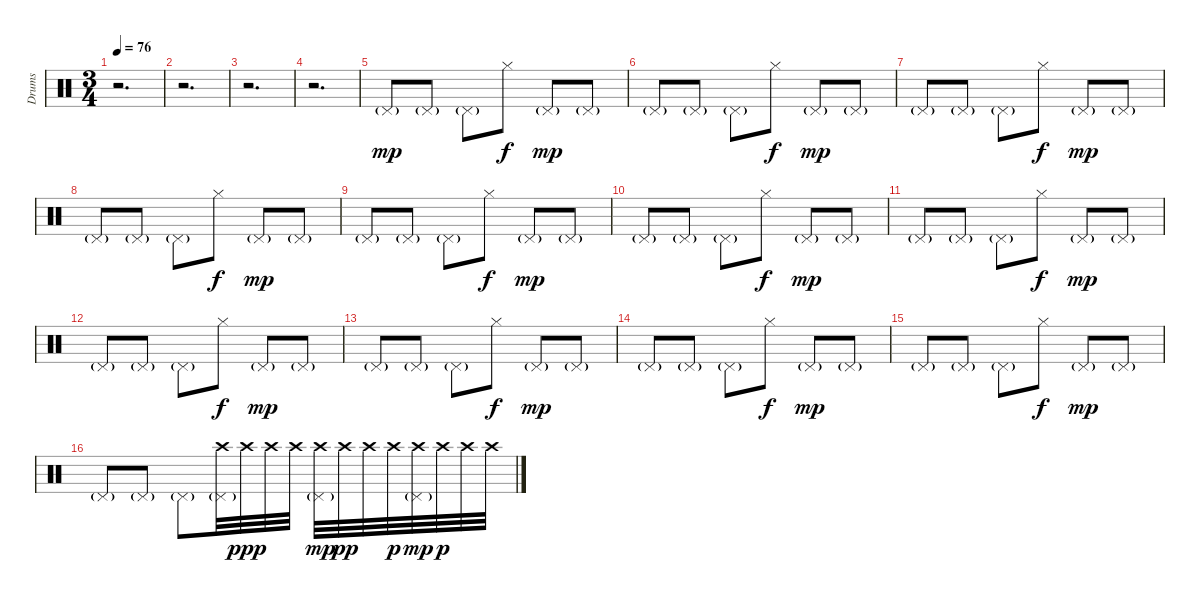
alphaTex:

\track ("Drums" "Drums") {instrument percussion}
\staff {score}
\articulation defaults
\ts (3 4)
\tempo 76
\clef neutral
\ks c
r.2{d dy mp} |
r.2{d} |
r.2{d} |
r.2{d} |
"Pedal Hi-Hat (hit)"{g}.8 "Pedal Hi-Hat (hit)"{g}.8 "Pedal Hi-Hat (hit)"{g}.8 "Hi-Hat (closed)".8{dy f} "Pedal Hi-Hat (hit)"{g}.8{dy mp} "Pedal Hi-Hat (hit)"{g}.8 |
"Pedal Hi-Hat (hit)"{g}.8 "Pedal Hi-Hat (hit)"{g}.8 "Pedal Hi-Hat (hit)"{g}.8 "Hi-Hat (closed)".8{dy f} "Pedal Hi-Hat (hit)"{g}.8{dy mp} "Pedal Hi-Hat (hit)"{g}.8 |
"Pedal Hi-Hat (hit)"{g}.8 "Pedal Hi-Hat (hit)"{g}.8 "Pedal Hi-Hat (hit)"{g}.8 "Hi-Hat (closed)".8{dy f} "Pedal Hi-Hat (hit)"{g}.8{dy mp} "Pedal Hi-Hat (hit)"{g}.8 |
"Pedal Hi-Hat (hit)"{g}.8 "Pedal Hi-Hat (hit)"{g}.8 "Pedal Hi-Hat (hit)"{g}.8 "Hi-Hat (closed)".8{dy f} "Pedal Hi-Hat (hit)"{g}.8{dy mp} "Pedal Hi-Hat (hit)"{g}.8 |
"Pedal Hi-Hat (hit)"{g}.8 "Pedal Hi-Hat (hit)"{g}.8 "Pedal Hi-Hat (hit)"{g}.8 "Hi-Hat (closed)".8{dy f} "Pedal Hi-Hat (hit)"{g}.8{dy mp} "Pedal Hi-Hat (hit)"{g}.8 |
"Pedal Hi-Hat (hit)"{g}.8 "Pedal Hi-Hat (hit)"{g}.8 "Pedal Hi-Hat (hit)"{g}.8 "Hi-Hat (closed)".8{dy f} "Pedal Hi-Hat (hit)"{g}.8{dy mp} "Pedal Hi-Hat (hit)"{g}.8 |
"Pedal Hi-Hat (hit)"{g}.8 "Pedal Hi-Hat (hit)"{g}.8 "Pedal Hi-Hat (hit)"{g}.8 "Hi-Hat (closed)".8{dy f} "Pedal Hi-Hat (hit)"{g}.8{dy mp} "Pedal Hi-Hat (hit)"{g}.8 |
"Pedal Hi-Hat (hit)"{g}.8 "Pedal Hi-Hat (hit)"{g}.8 "Pedal Hi-Hat (hit)"{g}.8 "Hi-Hat (closed)".8{dy f} "Pedal Hi-Hat (hit)"{g}.8{dy mp} "Pedal Hi-Hat (hit)"{g}.8 |
"Pedal Hi-Hat (hit)"{g}.8 "Pedal Hi-Hat (hit)"{g}.8 "Pedal Hi-Hat (hit)"{g}.8 "Hi-Hat (closed)".8{dy f} "Pedal Hi-Hat (hit)"{g}.8{dy mp} "Pedal Hi-Hat (hit)"{g}.8 |
"Pedal Hi-Hat (hit)"{g}.8 "Pedal Hi-Hat (hit)"{g}.8 "Pedal Hi-Hat (hit)"{g}.8 "Hi-Hat (closed)".8{dy f} "Pedal Hi-Hat (hit)"{g}.8{dy mp} "Pedal Hi-Hat (hit)"{g}.8 |
"Pedal Hi-Hat (hit)"{g}.8 "Pedal Hi-Hat (hit)"{g}.8 "Pedal Hi-Hat (hit)"{g}.8 "Hi-Hat (closed)".8{dy f} "Pedal Hi-Hat (hit)"{g}.8{dy mp} "Pedal Hi-Hat (hit)"{g}.8 |
"Pedal Hi-Hat (hit)"{g}.8 "Pedal Hi-Hat (hit)"{g}.8 "Pedal Hi-Hat (hit)"{g}.8 ("Crash high (hit)" "Pedal Hi-Hat (hit)"{g}).32 "Crash high (hit)".32{dy ppp} "Crash high (hit)".32 "Crash high (hit)".32 ("Crash high (hit)" "Pedal Hi-Hat (hit)"{g}).32{dy mp} "Crash high (hit)".32{dy pp} "Crash high (hit)".32 "Crash high (hit)".32{dy p} ("Crash high (hit)" "Pedal Hi-Hat (hit)"{g}).32{dy mp} "Crash high (hit)".32{dy p} "Crash high (hit)".32 "Crash high (hit)".32
